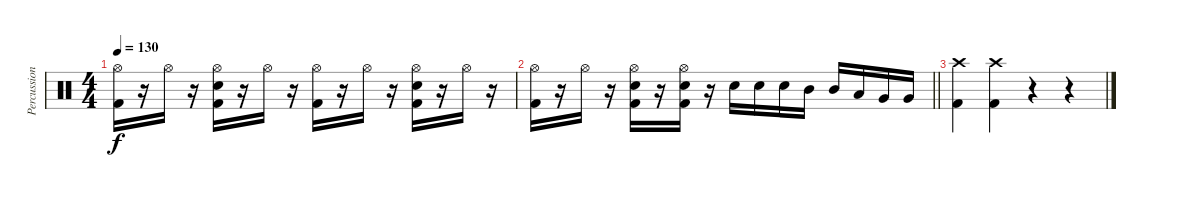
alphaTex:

\track ("Percussion" "Percussion") {instrument percussion}
\staff {score}
\articulation defaults
\ts (4 4)
\tempo 130
\clef neutral
\ks c
("Hi-Hat (open)" "Kick (hit) 2").16{dy f} r.16 "Hi-Hat (open)".16 r.16 ("Hi-Hat (open)" "Electric Snare (hit)" "Kick (hit) 2").16 r.16 "Hi-Hat (open)".16 r.16 ("Hi-Hat (open)" "Kick (hit) 2").16 r.16 "Hi-Hat (open)".16 r.16 ("Hi-Hat (open)" "Electric Snare (hit)" "Kick (hit) 2").16 r.16 "Hi-Hat (open)".16 r.16 |
\barLineRight lightlight
("Hi-Hat (open)" "Kick (hit) 2").16 r.16 "Hi-Hat (open)".16 r.16 ("Hi-Hat (open)" "Electric Snare (hit)" "Kick (hit) 2").16 r.16 ("Hi-Hat (open)" "Electric Snare (hit)" "Kick (hit) 2").16 r.16 "Electric Snare (hit)".16 "Electric Snare (hit)".16 "Electric Snare (hit)".16 "Mid Tom (hit)".16 "Mid Tom (hit)".16 "Low Tom (hit)".16 "Very Low Tom (hit)".16 "Very Low Tom (hit)".16 |
("Crash high (hit)" "Kick (hit) 2").4 ("Crash high (hit)" "Kick (hit) 2").4 r.4 r.4
